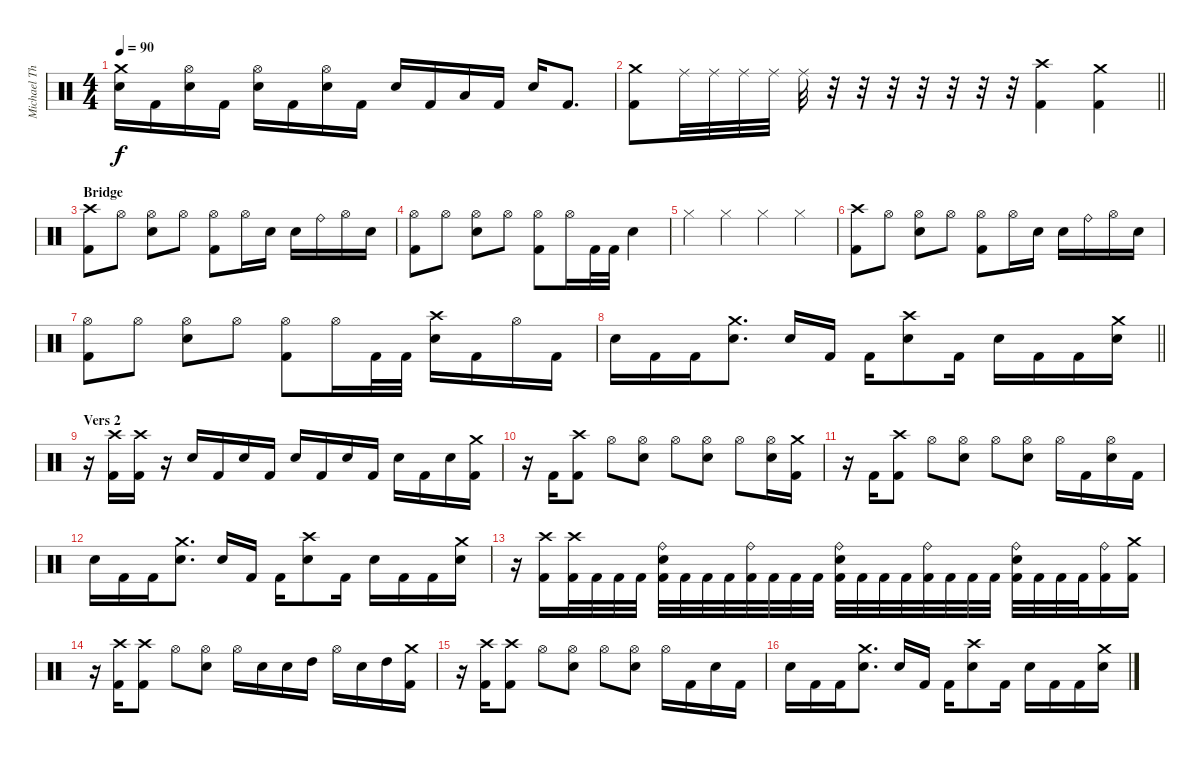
\track ("Michael Thomas" "Michael Th") {instrument percussion}
\staff {score}
\articulation defaults
\ts (4 4)
\tempo 90
\clef neutral
\ks c
("Crash medium (hit)" "Electric Snare (hit)").16{dy f} "Kick (hit) 2".16 ("Hi-Hat (open)" "Electric Snare (hit)").16 "Kick (hit) 2".16 ("Hi-Hat (open)" "Electric Snare (hit)").16 "Kick (hit) 2".16 ("Hi-Hat (open)" "Electric Snare (hit)").16 "Kick (hit) 2".16 "Electric Snare (hit)".16 "Kick (hit) 2".16 "Low Floor Tom (hit)".16 "Kick (hit) 2".16 "Electric Snare (hit)".16 "Kick (hit) 2".8{d} |
\barLineRight lightlight
("Crash medium (hit)" "Kick (hit) 2").8 "Ride (middle)".32 "Ride (middle)".32 "Ride (middle)".32 "Ride (middle)".32 "Ride (middle)".32 r.32 r.32 r.32 r.32 r.32 r.32 r.32 ("Crash high (hit)" "Kick (hit) 2").4 ("Crash medium (hit)" "Kick (hit) 2").4 |
\section ("" "Bridge")
("Crash high (hit)" "Kick (hit) 2").8 "Hi-Hat (open)".8 ("Hi-Hat (open)" "Electric Snare (hit)").8 "Hi-Hat (open)".8 ("Hi-Hat (open)" "Kick (hit) 2").8 "Hi-Hat (open)".16 "Electric Snare (hit)".16 "Electric Snare (hit)".16 "Ride (bell)".16 "Hi-Hat (open)".16 "Electric Snare (hit)".16 |
("Hi-Hat (open)" "Kick (hit) 2").8 "Hi-Hat (open)".8 ("Hi-Hat (open)" "Electric Snare (hit)").8 "Hi-Hat (open)".8 ("Hi-Hat (open)" "Kick (hit) 2").8 "Hi-Hat (open)".16 "Kick (hit) 2".32 "Kick (hit) 2".32 "Electric Snare (hit)".4 |
"Hi-Hat (closed)".4 "Hi-Hat (closed)".4 "Hi-Hat (closed)".4 "Hi-Hat (closed)".4 |
("Crash high (hit)" "Kick (hit) 2").8 "Hi-Hat (open)".8 ("Hi-Hat (open)" "Electric Snare (hit)").8 "Hi-Hat (open)".8 ("Hi-Hat (open)" "Kick (hit) 2").8 "Hi-Hat (open)".16 "Electric Snare (hit)".16 "Electric Snare (hit)".16 "Ride (bell)".16 "Hi-Hat (open)".16 "Electric Snare (hit)".16 |
("Hi-Hat (open)" "Kick (hit) 2").8 "Hi-Hat (open)".8 ("Hi-Hat (open)" "Electric Snare (hit)").8 "Hi-Hat (open)".8 ("Hi-Hat (open)" "Kick (hit) 2").8 "Hi-Hat (open)".16 "Kick (hit) 2".32 "Kick (hit) 2".32 ("Crash high (hit)" "Electric Snare (hit)").16 "Kick (hit) 2".16 "Hi-Hat (open)".16 "Kick (hit) 2".16 |
\barLineRight lightlight "Electric Snare (hit)".16 "Kick (hit) 2".16 "Kick (hit) 2".16
("Crash medium (hit)" "Electric Snare (hit)").8{d} "Electric Snare (hit)".16 "Kick (hit) 2".16 "Kick (hit) 2".16 ("Crash high (hit)" "Electric Snare (hit)").8 "Kick (hit) 2".16 "Electric Snare (hit)".16 "Kick (hit) 2".16 "Kick (hit) 2".16 ("Crash medium (hit)" "Electric Snare (hit)").16 |
\section ("" "Vers 2")
r.16 ("Crash high (hit)" "Kick (hit) 2").16 ("Crash high (hit)" "Kick (hit) 2").16 r.16 "Electric Snare (hit)".16 "Kick (hit) 2".16 "Electric Snare (hit)".16 "Kick (hit) 2".16 "Electric Snare (hit)".16 "Kick (hit) 2".16 "Electric Snare (hit)".16 "Kick (hit) 2".16 "Electric Snare (hit)".16 "Kick (hit) 2".16 "Electric Snare (hit)".16 ("Crash medium (hit)" "Kick (hit) 2").16 |
r.16 "Kick (hit) 2".16 ("Crash high (hit)" "Kick (hit) 2").8 "Hi-Hat (open)".8 ("Hi-Hat (open)" "Electric Snare (hit)").8 "Hi-Hat (open)".8 ("Hi-Hat (open)" "Electric Snare (hit)").8 "Hi-Hat (open)".8 ("Hi-Hat (open)" "Electric Snare (hit)").16 ("Crash medium (hit)" "Kick (hit) 2").16 |
r.16 "Kick (hit) 2".16 ("Crash high (hit)" "Kick (hit) 2").8 "Hi-Hat (open)".8 ("Hi-Hat (open)" "Electric Snare (hit)").8 "Hi-Hat (open)".8 ("Hi-Hat (open)" "Electric Snare (hit)").8 "Hi-Hat (open)".16 "Kick (hit) 2".16 ("Hi-Hat (open)" "Electric Snare (hit)").16 "Kick (hit) 2".16 |
"Electric Snare (hit)".16 "Kick (hit) 2".16 "Kick (hit) 2".16 ("Crash medium (hit)" "Electric Snare (hit)").8{d} "Electric Snare (hit)".16 "Kick (hit) 2".16 "Kick (hit) 2".16 ("Crash high (hit)" "Electric Snare (hit)").8 "Kick (hit) 2".16 "Electric Snare (hit)".16 "Kick (hit) 2".16 "Kick (hit) 2".16 ("Crash medium (hit)" "Electric Snare (hit)").16 |
r.16 ("Crash high (hit)" "Kick (hit) 2").16 ("Crash high (hit)" "Kick (hit) 2").32 "Kick (hit) 2".32 "Kick (hit) 2".32 "Kick (hit) 2".32 ("Ride (bell)" "Electric Snare (hit)" "Kick (hit) 2").32 "Kick (hit) 2".32 "Kick (hit) 2".32 "Kick (hit) 2".32 ("Ride (bell)" "Kick (hit) 2").32 "Kick (hit) 2".32 "Kick (hit) 2".32 "Kick (hit) 2".32 ("Ride (bell)" "Electric Snare (hit)" "Kick (hit) 2").32 "Kick (hit) 2".32 "Kick (hit) 2".32 "Kick (hit) 2".32 ("Ride (bell)" "Kick (hit) 2").32 "Kick (hit) 2".32 "Kick (hit) 2".32 "Kick (hit) 2".32 ("Ride (bell)" "Electric Snare (hit)" "Kick (hit) 2").32 "Kick (hit) 2".32 "Kick (hit) 2".32 "Kick (hit) 2".32 ("Ride (bell)" "Kick (hit) 2").16 ("Crash medium (hit)" "Kick (hit) 2").16 |
r.16 ("Crash high (hit)" "Kick (hit) 2").16 ("Crash high (hit)" "Kick (hit) 2").8 "Hi-Hat (open)".8 ("Hi-Hat (open)" "Electric Snare (hit)").8 "Hi-Hat (open)".16 "Electric Snare (hit)".16 "Electric Snare (hit)".16 "High Tom (hit)".16 "Hi-Hat (open)".16 "Electric Snare (hit)".16 "High Tom (hit)".16 ("Crash medium (hit)" "Kick (hit) 2").16 |
r.16 ("Crash high (hit)" "Kick (hit) 2").16 ("Crash high (hit)" "Kick (hit) 2").8 "Hi-Hat (open)".8 ("Hi-Hat (open)" "Electric Snare (hit)").8 "Hi-Hat (open)".8 ("Hi-Hat (open)" "Electric Snare (hit)").8 "Hi-Hat (open)".16 "Kick (hit) 2".16 "Electric Snare (hit)".16 "Kick (hit) 2".16 |
"Electric Snare (hit)".16 "Kick (hit) 2".16 "Kick (hit) 2".16 ("Crash medium (hit)" "Electric Snare (hit)").8{d} "Electric Snare (hit)".16 "Kick (hit) 2".16 "Kick (hit) 2".16 ("Crash high (hit)" "Electric Snare (hit)").8 "Kick (hit) 2".16 "Electric Snare (hit)".16 "Kick (hit) 2".16 "Kick (hit) 2".16 ("Crash medium (hit)" "Electric Snare (hit)").16
